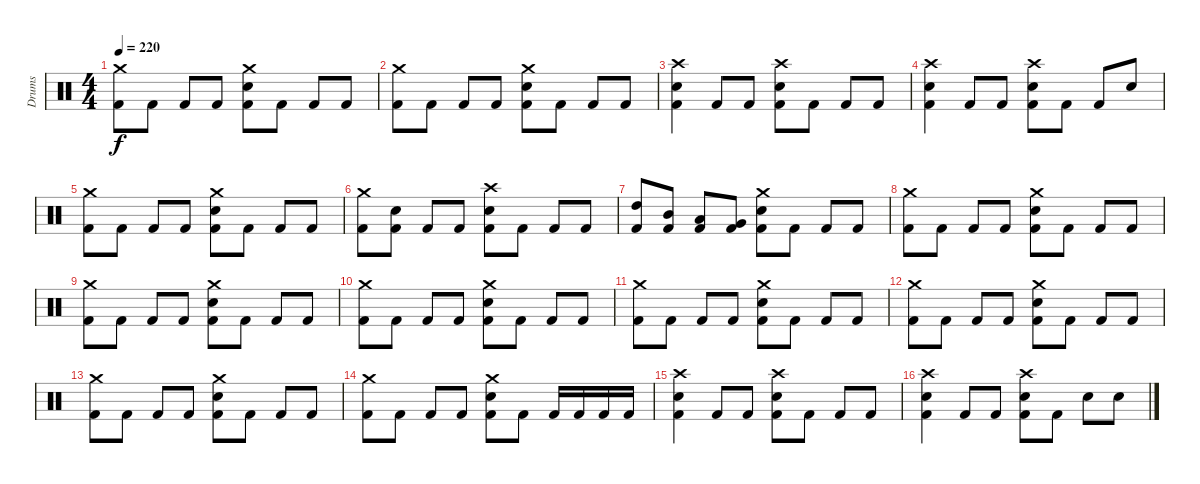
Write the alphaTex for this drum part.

\track ("Drums" "Drums") {instrument percussion}
\staff {score}
\articulation defaults
\ts (4 4)
\tempo 220
\clef neutral
\ks c
("Crash medium (hit)" "Kick (hit) 2").8{dy f} "Kick (hit) 2".8 "Kick (hit) 2".8 "Kick (hit) 2".8 ("Crash medium (hit)" "Snare (hit) 2" "Kick (hit) 2").8 "Kick (hit) 2".8 "Kick (hit) 2".8 "Kick (hit) 2".8 |
("Crash medium (hit)" "Kick (hit) 2").8 "Kick (hit) 2".8 "Kick (hit) 2".8 "Kick (hit) 2".8 ("Crash medium (hit)" "Snare (hit) 2" "Kick (hit) 2").8 "Kick (hit) 2".8 "Kick (hit) 2".8 "Kick (hit) 2".8 |
("Crash high (hit)" "Snare (hit) 2" "Kick (hit) 2").4 "Kick (hit) 2".8 "Kick (hit) 2".8 ("Crash high (hit)" "Snare (hit) 2" "Kick (hit) 2").8 "Kick (hit) 2".8 "Kick (hit) 2".8 "Kick (hit) 2".8 |
("Crash high (hit)" "Snare (hit) 2" "Kick (hit) 2").4 "Kick (hit) 2".8 "Kick (hit) 2".8 ("Crash high (hit)" "Snare (hit) 2" "Kick (hit) 2").8 "Kick (hit) 2".8 "Kick (hit) 2".8 "Snare (hit) 2".8 |
("Crash medium (hit)" "Kick (hit) 2").8 "Kick (hit) 2".8 "Kick (hit) 2".8 "Kick (hit) 2".8 ("Crash medium (hit)" "Snare (hit) 2" "Kick (hit) 2").8 "Kick (hit) 2".8 "Kick (hit) 2".8 "Kick (hit) 2".8 |
("Crash medium (hit)" "Kick (hit) 2").8 ("Snare (hit) 2" "Kick (hit) 2").8 "Kick (hit) 2".8 "Kick (hit) 2".8 ("Crash high (hit)" "Snare (hit) 2" "Kick (hit) 2").8 "Kick (hit) 2".8 "Kick (hit) 2".8 "Kick (hit) 2".8 |
("High Tom (hit)" "Kick (hit) 2").8 ("Mid Tom (hit)" "Kick (hit) 2").8 ("Low Tom (hit)" "Kick (hit) 2").8 ("Very Low Tom (hit)" "Kick (hit) 2").8 ("Crash medium (hit)" "Snare (hit) 2" "Kick (hit) 2").8 "Kick (hit) 2".8 "Kick (hit) 2".8 "Kick (hit) 2".8 |
("Crash medium (hit)" "Kick (hit) 2").8 "Kick (hit) 2".8 "Kick (hit) 2".8 "Kick (hit) 2".8 ("Crash medium (hit)" "Snare (hit) 2" "Kick (hit) 2").8 "Kick (hit) 2".8 "Kick (hit) 2".8 "Kick (hit) 2".8 |
("Crash medium (hit)" "Kick (hit) 2").8 "Kick (hit) 2".8 "Kick (hit) 2".8 "Kick (hit) 2".8 ("Crash medium (hit)" "Snare (hit) 2" "Kick (hit) 2").8 "Kick (hit) 2".8 "Kick (hit) 2".8 "Kick (hit) 2".8 |
("Crash medium (hit)" "Kick (hit) 2").8 "Kick (hit) 2".8 "Kick (hit) 2".8 "Kick (hit) 2".8 ("Crash medium (hit)" "Snare (hit) 2" "Kick (hit) 2").8 "Kick (hit) 2".8 "Kick (hit) 2".8 "Kick (hit) 2".8 |
("Crash medium (hit)" "Kick (hit) 2").8 "Kick (hit) 2".8 "Kick (hit) 2".8 "Kick (hit) 2".8 ("Crash medium (hit)" "Snare (hit) 2" "Kick (hit) 2").8 "Kick (hit) 2".8 "Kick (hit) 2".8 "Kick (hit) 2".8 |
("Crash medium (hit)" "Kick (hit) 2").8 "Kick (hit) 2".8 "Kick (hit) 2".8 "Kick (hit) 2".8 ("Crash medium (hit)" "Snare (hit) 2" "Kick (hit) 2").8 "Kick (hit) 2".8 "Kick (hit) 2".8 "Kick (hit) 2".8 |
("Crash medium (hit)" "Kick (hit) 2").8 "Kick (hit) 2".8 "Kick (hit) 2".8 "Kick (hit) 2".8 ("Crash medium (hit)" "Snare (hit) 2" "Kick (hit) 2").8 "Kick (hit) 2".8 "Kick (hit) 2".8 "Kick (hit) 2".8 |
("Crash medium (hit)" "Kick (hit) 2").8 "Kick (hit) 2".8 "Kick (hit) 2".8 "Kick (hit) 2".8 ("Crash medium (hit)" "Snare (hit) 2" "Kick (hit) 2").8 "Kick (hit) 2".8 "Kick (hit) 2".16 "Kick (hit) 2".16 "Kick (hit) 2".16 "Kick (hit) 2".16 |
("Crash high (hit)" "Snare (hit) 2" "Kick (hit) 2").4 "Kick (hit) 2".8 "Kick (hit) 2".8 ("Crash high (hit)" "Snare (hit) 2" "Kick (hit) 2").8 "Kick (hit) 2".8 "Kick (hit) 2".8 "Kick (hit) 2".8 |
("Crash high (hit)" "Snare (hit) 2" "Kick (hit) 2").4 "Kick (hit) 2".8 "Kick (hit) 2".8 ("Crash high (hit)" "Snare (hit) 2" "Kick (hit) 2").8 "Kick (hit) 2".8 "Snare (hit) 2".8 "Snare (hit) 2".8
